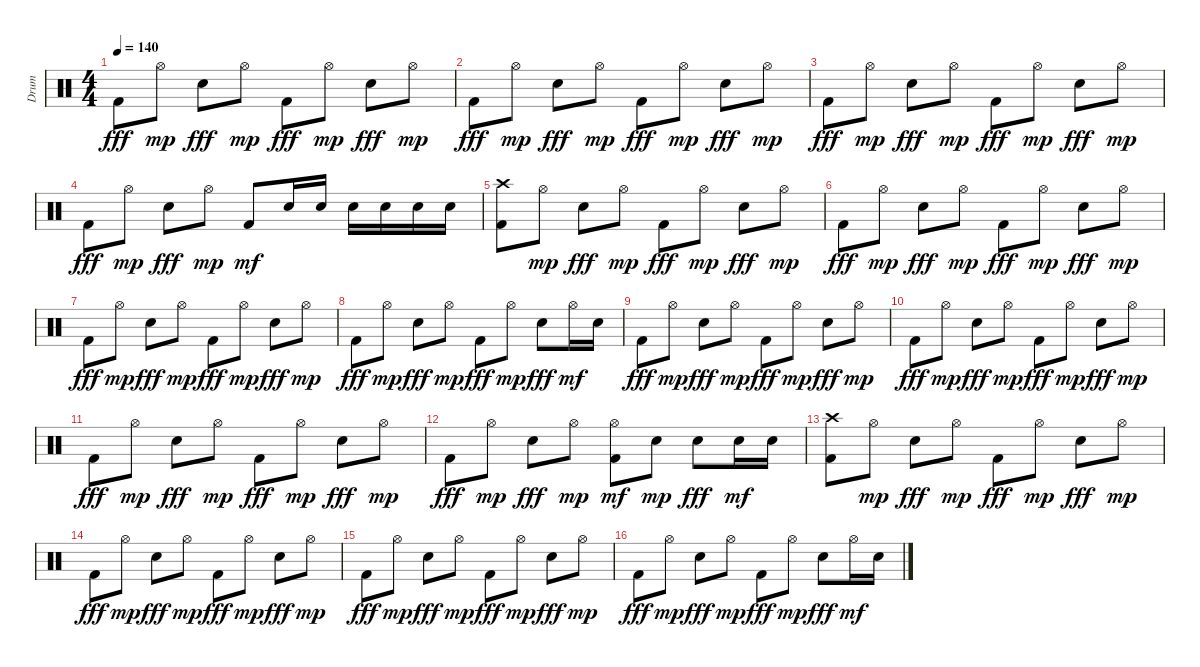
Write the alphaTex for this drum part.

\track ("Drum" "Drum") {instrument percussion}
\staff {score}
\articulation defaults
\ts (4 4)
\tempo 140
\clef neutral
\ks c "Kick (hit) 2".8{dy fff} "Hi-Hat (open)".8{dy mp} "Electric Snare (hit)".8{dy fff} "Hi-Hat (open)".8{dy mp} "Kick (hit) 2".8{dy fff} "Hi-Hat (open)".8{dy mp} "Electric Snare (hit)".8{dy fff} "Hi-Hat (open)".8{dy mp}
|
"Kick (hit) 2".8{dy fff} "Hi-Hat (open)".8{dy mp} "Electric Snare (hit)".8{dy fff} "Hi-Hat (open)".8{dy mp} "Kick (hit) 2".8{dy fff} "Hi-Hat (open)".8{dy mp} "Electric Snare (hit)".8{dy fff} "Hi-Hat (open)".8{dy mp} |
"Kick (hit) 2".8{dy fff} "Hi-Hat (open)".8{dy mp} "Electric Snare (hit)".8{dy fff} "Hi-Hat (open)".8{dy mp} "Kick (hit) 2".8{dy fff} "Hi-Hat (open)".8{dy mp} "Electric Snare (hit)".8{dy fff} "Hi-Hat (open)".8{dy mp} |
"Kick (hit) 2".8{dy fff} "Hi-Hat (open)".8{dy mp} "Electric Snare (hit)".8{dy fff} "Hi-Hat (open)".8{dy mp} "Kick (hit) 2".8{dy mf} "Electric Snare (hit)".16 "Electric Snare (hit)".16 "Electric Snare (hit)".16 "Electric Snare (hit)".16 "Electric Snare (hit)".16 "Electric Snare (hit)".16 |
("Kick (hit) 2" "Crash high (hit)").8 "Hi-Hat (open)".8{dy mp} "Electric Snare (hit)".8{dy fff} "Hi-Hat (open)".8{dy mp} "Kick (hit) 2".8{dy fff} "Hi-Hat (open)".8{dy mp} "Electric Snare (hit)".8{dy fff} "Hi-Hat (open)".8{dy mp} |
"Kick (hit) 2".8{dy fff} "Hi-Hat (open)".8{dy mp} "Electric Snare (hit)".8{dy fff} "Hi-Hat (open)".8{dy mp} "Kick (hit) 2".8{dy fff} "Hi-Hat (open)".8{dy mp} "Electric Snare (hit)".8{dy fff} "Hi-Hat (open)".8{dy mp} |
"Kick (hit) 2".8{dy fff} "Hi-Hat (open)".8{dy mp} "Electric Snare (hit)".8{dy fff} "Hi-Hat (open)".8{dy mp} "Kick (hit) 2".8{dy fff} "Hi-Hat (open)".8{dy mp} "Electric Snare (hit)".8{dy fff} "Hi-Hat (open)".8{dy mp} |
"Kick (hit) 2".8{dy fff} "Hi-Hat (open)".8{dy mp} "Electric Snare (hit)".8{dy fff} "Hi-Hat (open)".8{dy mp} "Kick (hit) 2".8{dy fff} "Hi-Hat (open)".8{dy mp} "Electric Snare (hit)".8{dy fff} "Hi-Hat (open)".16{dy mf} "Electric Snare (hit)".16 |
"Kick (hit) 2".8{dy fff} "Hi-Hat (open)".8{dy mp} "Electric Snare (hit)".8{dy fff} "Hi-Hat (open)".8{dy mp} "Kick (hit) 2".8{dy fff} "Hi-Hat (open)".8{dy mp} "Electric Snare (hit)".8{dy fff} "Hi-Hat (open)".8{dy mp} |
"Kick (hit) 2".8{dy fff} "Hi-Hat (open)".8{dy mp} "Electric Snare (hit)".8{dy fff} "Hi-Hat (open)".8{dy mp} "Kick (hit) 2".8{dy fff} "Hi-Hat (open)".8{dy mp} "Electric Snare (hit)".8{dy fff} "Hi-Hat (open)".8{dy mp} |
"Kick (hit) 2".8{dy fff} "Hi-Hat (open)".8{dy mp} "Electric Snare (hit)".8{dy fff} "Hi-Hat (open)".8{dy mp} "Kick (hit) 2".8{dy fff} "Hi-Hat (open)".8{dy mp} "Electric Snare (hit)".8{dy fff} "Hi-Hat (open)".8{dy mp} |
"Kick (hit) 2".8{dy fff} "Hi-Hat (open)".8{dy mp} "Electric Snare (hit)".8{dy fff} "Hi-Hat (open)".8{dy mp} ("Kick (hit) 2" "Hi-Hat (open)").8{dy mf} "Electric Snare (hit)".8{dy mp} "Electric Snare (hit)".8{dy fff} "Electric Snare (hit)".16{dy mf} "Electric Snare (hit)".16 |
("Kick (hit) 2" "Crash high (hit)").8 "Hi-Hat (open)".8{dy mp} "Electric Snare (hit)".8{dy fff} "Hi-Hat (open)".8{dy mp} "Kick (hit) 2".8{dy fff} "Hi-Hat (open)".8{dy mp} "Electric Snare (hit)".8{dy fff} "Hi-Hat (open)".8{dy mp} |
"Kick (hit) 2".8{dy fff} "Hi-Hat (open)".8{dy mp} "Electric Snare (hit)".8{dy fff} "Hi-Hat (open)".8{dy mp} "Kick (hit) 2".8{dy fff} "Hi-Hat (open)".8{dy mp} "Electric Snare (hit)".8{dy fff} "Hi-Hat (open)".8{dy mp} |
"Kick (hit) 2".8{dy fff} "Hi-Hat (open)".8{dy mp} "Electric Snare (hit)".8{dy fff} "Hi-Hat (open)".8{dy mp} "Kick (hit) 2".8{dy fff} "Hi-Hat (open)".8{dy mp} "Electric Snare (hit)".8{dy fff} "Hi-Hat (open)".8{dy mp} |
"Kick (hit) 2".8{dy fff} "Hi-Hat (open)".8{dy mp} "Electric Snare (hit)".8{dy fff} "Hi-Hat (open)".8{dy mp} "Kick (hit) 2".8{dy fff} "Hi-Hat (open)".8{dy mp} "Electric Snare (hit)".8{dy fff} "Hi-Hat (open)".16{dy mf} "Electric Snare (hit)".16
